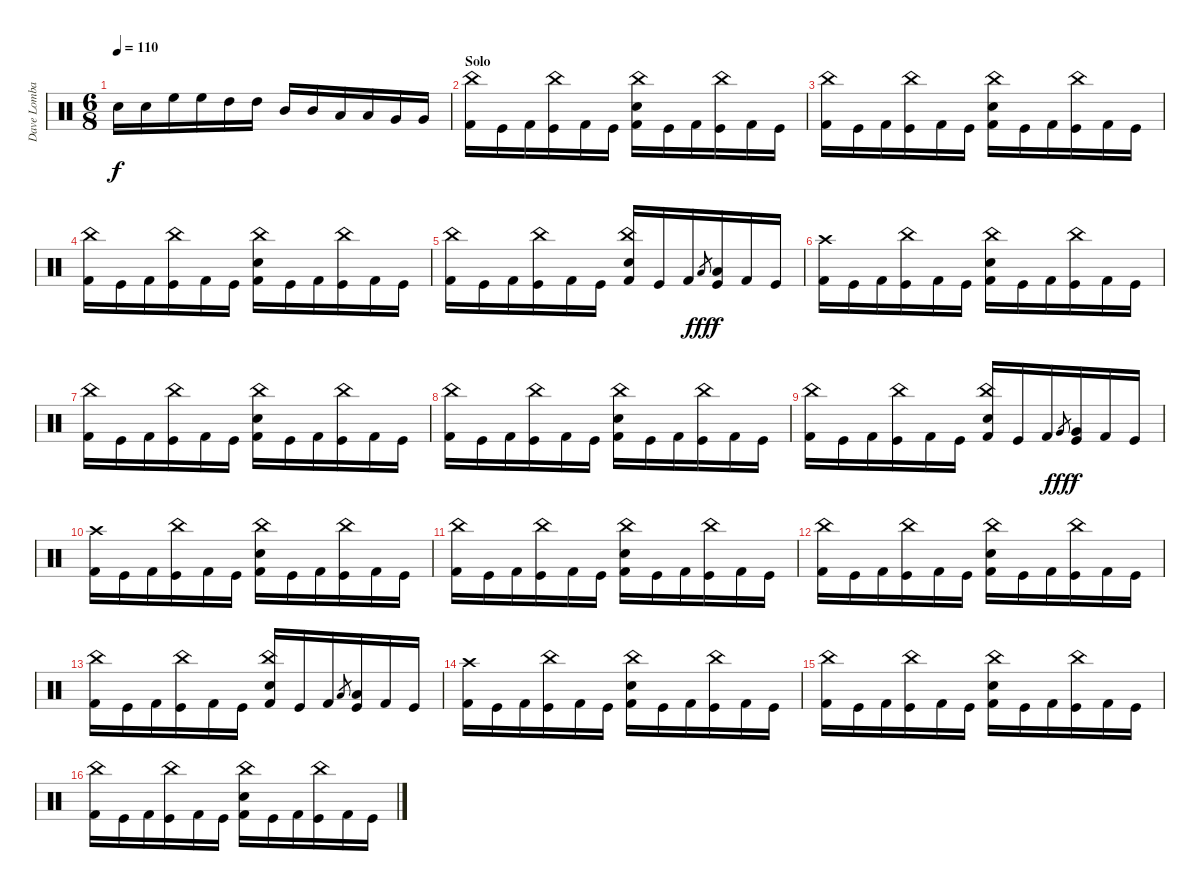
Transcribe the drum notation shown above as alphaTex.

\track ("Dave Lombardo (drums)" "Dave Lomba") {instrument percussion}
\staff {score}
\articulation defaults
\ts (6 8)
\tempo 110
\clef neutral
\ks c "Snare (hit) 2".16{dy f} "Snare (hit) 2".16 "High Floor Tom (hit)".16 "High Floor Tom (hit)".16 "High Tom (hit)".16 "High Tom (hit)".16 "Mid Tom (hit)".16 "Mid Tom (hit)".16 "Low Tom (hit)".16 "Low Tom (hit)".16 "Very Low Tom (hit)".16 "Very Low Tom (hit)".16
|
\section ("" "Solo")
("China (hit)" "Kick (hit) 2").16 "Kick (hit)".16 "Kick (hit) 2".16 ("China (hit)" "Kick (hit)").16 "Kick (hit) 2".16 "Kick (hit)".16 ("China (hit)" "Snare (hit) 2" "Kick (hit) 2").16 "Kick (hit)".16 "Kick (hit) 2".16 ("China (hit)" "Kick (hit)").16 "Kick (hit) 2".16 "Kick (hit)".16 |
("China (hit)" "Kick (hit) 2").16 "Kick (hit)".16 "Kick (hit) 2".16 ("China (hit)" "Kick (hit)").16 "Kick (hit) 2".16 "Kick (hit)".16 ("China (hit)" "Snare (hit) 2" "Kick (hit) 2").16 "Kick (hit)".16 "Kick (hit) 2".16 ("China (hit)" "Kick (hit)").16 "Kick (hit) 2".16 "Kick (hit)".16 |
("China (hit)" "Kick (hit) 2").16 "Kick (hit)".16 "Kick (hit) 2".16 ("China (hit)" "Kick (hit)").16 "Kick (hit) 2".16 "Kick (hit)".16 ("China (hit)" "Snare (hit) 2" "Kick (hit) 2").16 "Kick (hit)".16 "Kick (hit) 2".16 ("China (hit)" "Kick (hit)").16 "Kick (hit) 2".16 "Kick (hit)".16 |
("China (hit)" "Kick (hit) 2").16 "Kick (hit)".16 "Kick (hit) 2".16 ("China (hit)" "Kick (hit)").16 "Kick (hit) 2".16 "Kick (hit)".16 ("China (hit)" "Snare (hit) 2" "Kick (hit) 2").16 "Kick (hit)".16 "Kick (hit) 2".16 "Low Floor Tom (hit)".8{gr dy fff} ("Low Floor Tom (hit)" "Kick (hit)").16{dy f} "Kick (hit) 2".16 "Kick (hit)".16 |
("Crash high (hit)" "Kick (hit) 2").16 "Kick (hit)".16 "Kick (hit) 2".16 ("China (hit)" "Kick (hit)").16 "Kick (hit) 2".16 "Kick (hit)".16 ("China (hit)" "Snare (hit) 2" "Kick (hit) 2").16 "Kick (hit)".16 "Kick (hit) 2".16 ("China (hit)" "Kick (hit)").16 "Kick (hit) 2".16 "Kick (hit)".16 |
("China (hit)" "Kick (hit) 2").16 "Kick (hit)".16 "Kick (hit) 2".16 ("China (hit)" "Kick (hit)").16 "Kick (hit) 2".16 "Kick (hit)".16 ("China (hit)" "Snare (hit) 2" "Kick (hit) 2").16 "Kick (hit)".16 "Kick (hit) 2".16 ("China (hit)" "Kick (hit)").16 "Kick (hit) 2".16 "Kick (hit)".16 |
("China (hit)" "Kick (hit) 2").16 "Kick (hit)".16 "Kick (hit) 2".16 ("China (hit)" "Kick (hit)").16 "Kick (hit) 2".16 "Kick (hit)".16 ("China (hit)" "Snare (hit) 2" "Kick (hit) 2").16 "Kick (hit)".16 "Kick (hit) 2".16 ("China (hit)" "Kick (hit)").16 "Kick (hit) 2".16 "Kick (hit)".16 |
("China (hit)" "Kick (hit) 2").16 "Kick (hit)".16 "Kick (hit) 2".16 ("China (hit)" "Kick (hit)").16 "Kick (hit) 2".16 "Kick (hit)".16 ("China (hit)" "Snare (hit) 2" "Kick (hit) 2").16 "Kick (hit)".16 "Kick (hit) 2".16 "Very Low Tom (hit)".8{gr dy fff} ("Very Low Tom (hit)" "Kick (hit)").16{dy f} "Kick (hit) 2".16 "Kick (hit)".16 |
("Crash high (hit)" "Kick (hit) 2").16 "Kick (hit)".16 "Kick (hit) 2".16 ("China (hit)" "Kick (hit)").16 "Kick (hit) 2".16 "Kick (hit)".16 ("China (hit)" "Snare (hit) 2" "Kick (hit) 2").16 "Kick (hit)".16 "Kick (hit) 2".16 ("China (hit)" "Kick (hit)").16 "Kick (hit) 2".16 "Kick (hit)".16 |
("China (hit)" "Kick (hit) 2").16 "Kick (hit)".16 "Kick (hit) 2".16 ("China (hit)" "Kick (hit)").16 "Kick (hit) 2".16 "Kick (hit)".16 ("China (hit)" "Snare (hit) 2" "Kick (hit) 2").16 "Kick (hit)".16 "Kick (hit) 2".16 ("China (hit)" "Kick (hit)").16 "Kick (hit) 2".16 "Kick (hit)".16 |
("China (hit)" "Kick (hit) 2").16 "Kick (hit)".16 "Kick (hit) 2".16 ("China (hit)" "Kick (hit)").16 "Kick (hit) 2".16 "Kick (hit)".16 ("China (hit)" "Snare (hit) 2" "Kick (hit) 2").16 "Kick (hit)".16 "Kick (hit) 2".16 ("China (hit)" "Kick (hit)").16 "Kick (hit) 2".16 "Kick (hit)".16 |
("China (hit)" "Kick (hit) 2").16 "Kick (hit)".16 "Kick (hit) 2".16 ("China (hit)" "Kick (hit)").16 "Kick (hit) 2".16 "Kick (hit)".16 ("China (hit)" "Snare (hit) 2" "Kick (hit) 2").16 "Kick (hit)".16 "Kick (hit) 2".16 "Low Floor Tom (hit)".8{gr} ("Low Floor Tom (hit)" "Kick (hit)").16 "Kick (hit) 2".16 "Kick (hit)".16 |
("Crash high (hit)" "Kick (hit) 2").16 "Kick (hit)".16 "Kick (hit) 2".16 ("China (hit)" "Kick (hit)").16 "Kick (hit) 2".16 "Kick (hit)".16 ("China (hit)" "Snare (hit) 2" "Kick (hit) 2").16 "Kick (hit)".16 "Kick (hit) 2".16 ("China (hit)" "Kick (hit)").16 "Kick (hit) 2".16 "Kick (hit)".16 |
("China (hit)" "Kick (hit) 2").16 "Kick (hit)".16 "Kick (hit) 2".16 ("China (hit)" "Kick (hit)").16 "Kick (hit) 2".16 "Kick (hit)".16 ("China (hit)" "Snare (hit) 2" "Kick (hit) 2").16 "Kick (hit)".16 "Kick (hit) 2".16 ("China (hit)" "Kick (hit)").16 "Kick (hit) 2".16 "Kick (hit)".16 |
("China (hit)" "Kick (hit) 2").16 "Kick (hit)".16 "Kick (hit) 2".16 ("China (hit)" "Kick (hit)").16 "Kick (hit) 2".16 "Kick (hit)".16 ("China (hit)" "Snare (hit) 2" "Kick (hit) 2").16 "Kick (hit)".16 "Kick (hit) 2".16 ("China (hit)" "Kick (hit)").16 "Kick (hit) 2".16 "Kick (hit)".16
